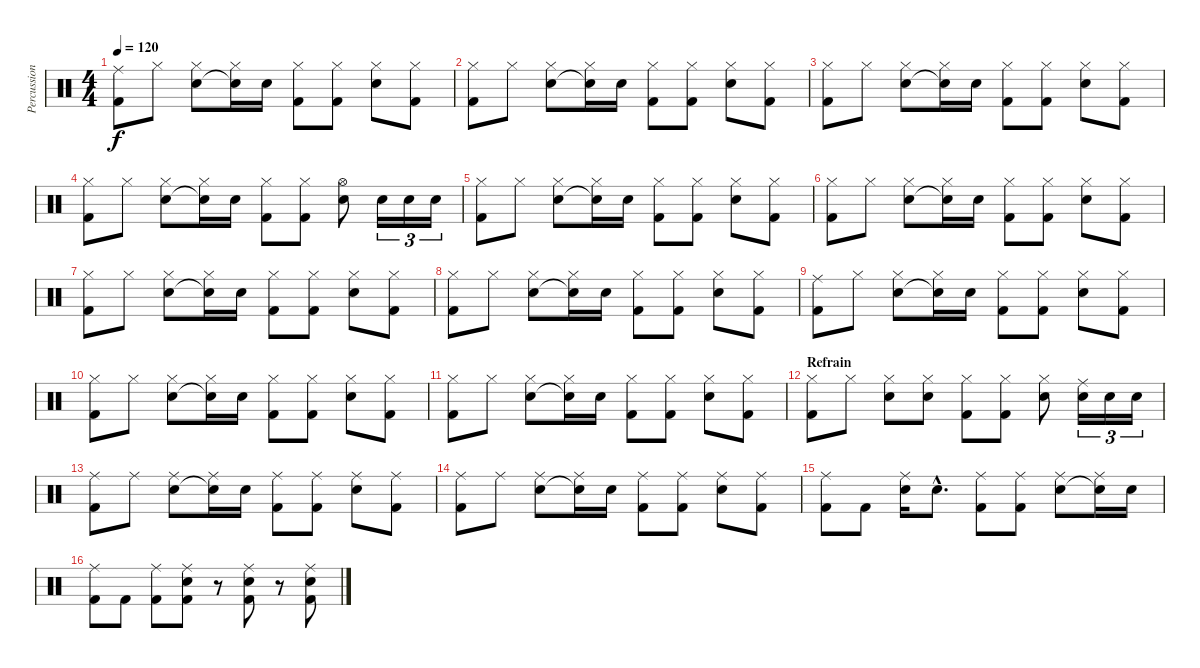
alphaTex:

\track ("Percussions" "Percussion") {instrument percussion}
\staff {score}
\articulation defaults
\ts (4 4)
\tempo 120
\clef neutral
\ks c
("Ride (middle)" "Kick (hit) 2").8{dy f} "Hi-Hat (closed)".8 ("Hi-Hat (closed)" "Snare (hit) 2").8 ("Hi-Hat (closed)" "Snare (hit)"{t}).16 "Snare (hit) 2".16 ("Hi-Hat (closed)" "Kick (hit) 2").8 ("Hi-Hat (closed)" "Kick (hit) 2").8 ("Hi-Hat (closed)" "Snare (hit) 2").8 ("Hi-Hat (closed)" "Kick (hit) 2").8 |
("Hi-Hat (closed)" "Kick (hit) 2").8 "Hi-Hat (closed)".8 ("Hi-Hat (closed)" "Snare (hit) 2").8 ("Hi-Hat (closed)" "Snare (hit)"{t}).16 "Snare (hit) 2".16 ("Hi-Hat (closed)" "Kick (hit) 2").8 ("Hi-Hat (closed)" "Kick (hit) 2").8 ("Hi-Hat (closed)" "Snare (hit) 2").8 ("Hi-Hat (closed)" "Kick (hit) 2").8 |
("Hi-Hat (closed)" "Kick (hit) 2").8 "Hi-Hat (closed)".8 ("Hi-Hat (closed)" "Snare (hit) 2").8 ("Hi-Hat (closed)" "Snare (hit)"{t}).16 "Snare (hit) 2".16 ("Hi-Hat (closed)" "Kick (hit) 2").8 ("Hi-Hat (closed)" "Kick (hit) 2").8 ("Hi-Hat (closed)" "Snare (hit) 2").8 ("Hi-Hat (closed)" "Kick (hit) 2").8 |
("Hi-Hat (closed)" "Kick (hit) 2").8 "Hi-Hat (closed)".8 ("Hi-Hat (closed)" "Snare (hit) 2").8 ("Hi-Hat (closed)" "Snare (hit)"{t}).16 "Snare (hit) 2".16 ("Hi-Hat (closed)" "Kick (hit) 2").8 ("Hi-Hat (closed)" "Kick (hit) 2").8 ("Hi-Hat (open)" "Snare (hit) 2").8 "Snare (hit) 2".16{tu (3 2)} "Snare (hit) 2".16{tu (3 2)} "Snare (hit) 2".16{tu (3 2)} |
("Hi-Hat (closed)" "Kick (hit) 2").8 "Hi-Hat (closed)".8 ("Hi-Hat (closed)" "Snare (hit) 2").8 ("Hi-Hat (closed)" "Snare (hit)"{t}).16 "Snare (hit) 2".16 ("Hi-Hat (closed)" "Kick (hit) 2").8 ("Hi-Hat (closed)" "Kick (hit) 2").8 ("Hi-Hat (closed)" "Snare (hit) 2").8 ("Hi-Hat (closed)" "Kick (hit) 2").8 |
("Hi-Hat (closed)" "Kick (hit) 2").8 "Hi-Hat (closed)".8 ("Hi-Hat (closed)" "Snare (hit) 2").8 ("Hi-Hat (closed)" "Snare (hit)"{t}).16 "Snare (hit) 2".16 ("Hi-Hat (closed)" "Kick (hit) 2").8 ("Hi-Hat (closed)" "Kick (hit) 2").8 ("Hi-Hat (closed)" "Snare (hit) 2").8 ("Hi-Hat (closed)" "Kick (hit) 2").8 |
("Hi-Hat (closed)" "Kick (hit) 2").8 "Hi-Hat (closed)".8 ("Hi-Hat (closed)" "Snare (hit) 2").8 ("Hi-Hat (closed)" "Snare (hit)"{t}).16 "Snare (hit) 2".16 ("Hi-Hat (closed)" "Kick (hit) 2").8 ("Hi-Hat (closed)" "Kick (hit) 2").8 ("Hi-Hat (closed)" "Snare (hit) 2").8 ("Hi-Hat (closed)" "Kick (hit) 2").8 |
("Hi-Hat (closed)" "Kick (hit) 2").8 "Hi-Hat (closed)".8 ("Hi-Hat (closed)" "Snare (hit) 2").8 ("Hi-Hat (closed)" "Snare (hit)"{t}).16 "Snare (hit) 2".16 ("Hi-Hat (closed)" "Kick (hit) 2").8 ("Hi-Hat (closed)" "Kick (hit) 2").8 ("Hi-Hat (closed)" "Snare (hit) 2").8 ("Hi-Hat (closed)" "Kick (hit) 2").8 |
("Ride (middle)" "Kick (hit) 2").8 "Hi-Hat (closed)".8 ("Hi-Hat (closed)" "Snare (hit) 2").8 ("Hi-Hat (closed)" "Snare (hit)"{t}).16 "Snare (hit) 2".16 ("Hi-Hat (closed)" "Kick (hit) 2").8 ("Hi-Hat (closed)" "Kick (hit) 2").8 ("Hi-Hat (closed)" "Snare (hit) 2").8 ("Hi-Hat (closed)" "Kick (hit) 2").8 |
("Hi-Hat (closed)" "Kick (hit) 2").8 "Hi-Hat (closed)".8 ("Hi-Hat (closed)" "Snare (hit) 2").8 ("Hi-Hat (closed)" "Snare (hit)"{t}).16 "Snare (hit) 2".16 ("Hi-Hat (closed)" "Kick (hit) 2").8 ("Hi-Hat (closed)" "Kick (hit) 2").8 ("Hi-Hat (closed)" "Snare (hit) 2").8 ("Hi-Hat (closed)" "Kick (hit) 2").8 |
("Hi-Hat (closed)" "Kick (hit) 2").8 "Hi-Hat (closed)".8 ("Hi-Hat (closed)" "Snare (hit) 2").8 ("Hi-Hat (closed)" "Snare (hit)"{t}).16 "Snare (hit) 2".16 ("Hi-Hat (closed)" "Kick (hit) 2").8 ("Hi-Hat (closed)" "Kick (hit) 2").8 ("Hi-Hat (closed)" "Snare (hit) 2").8 ("Hi-Hat (closed)" "Kick (hit) 2").8 |
\section ("" "Refrain")
("Hi-Hat (closed)" "Kick (hit) 2").8 "Hi-Hat (closed)".8 ("Hi-Hat (closed)" "Snare (hit) 2").8 ("Hi-Hat (closed)" "Snare (hit)").8 ("Hi-Hat (closed)" "Kick (hit) 2").8 ("Hi-Hat (closed)" "Kick (hit) 2").8 ("Hi-Hat (closed)" "Snare (hit) 2").8 ("Ride (middle)" "Snare (hit) 2").16{tu (3 2)} "Snare (hit) 2".16{tu (3 2)} "Snare (hit) 2".16{tu (3 2)} |
("Ride (middle)" "Kick (hit) 2").8 "Ride (middle)".8 ("Ride (middle)" "Snare (hit) 2").8 ("Ride (middle)" "Snare (hit)"{t}).16 "Snare (hit) 2".16 ("Ride (middle)" "Kick (hit) 2").8 ("Ride (middle)" "Kick (hit) 2").8 ("Ride (middle)" "Snare (hit) 2").8 ("Ride (middle)" "Kick (hit) 2").8 |
("Ride (middle)" "Kick (hit) 2").8 "Ride (middle)".8 ("Ride (middle)" "Snare (hit) 2").8 ("Ride (middle)" "Snare (hit)"{t}).16 "Snare (hit) 2".16 ("Ride (middle)" "Kick (hit) 2").8 ("Ride (middle)" "Kick (hit) 2").8 ("Ride (middle)" "Snare (hit) 2").8 ("Ride (middle)" "Kick (hit) 2").8 |
("Ride (middle)" "Kick (hit) 2").8 "Kick (hit) 2".8 ("Ride (middle)" "Snare (hit) 2").16 "Snare (hit) 2"{hac}.8{d} ("Ride (middle)" "Kick (hit) 2").8 ("Ride (middle)" "Kick (hit) 2").8 ("Ride (middle)" "Snare (hit) 2").8 ("Ride (middle)" "Snare (hit) 2"{t}).16 "Snare (hit) 2".16 |
("Ride (middle)" "Kick (hit) 2").8 "Kick (hit) 2".8 ("Ride (middle)" "Kick (hit) 2").8 ("Ride (middle)" "Snare (hit) 2" "Kick (hit) 2").8 r.8 ("Ride (middle)" "Snare (hit) 2" "Kick (hit) 2").8 r.8 ("Ride (middle)" "Snare (hit) 2" "Kick (hit) 2").8
